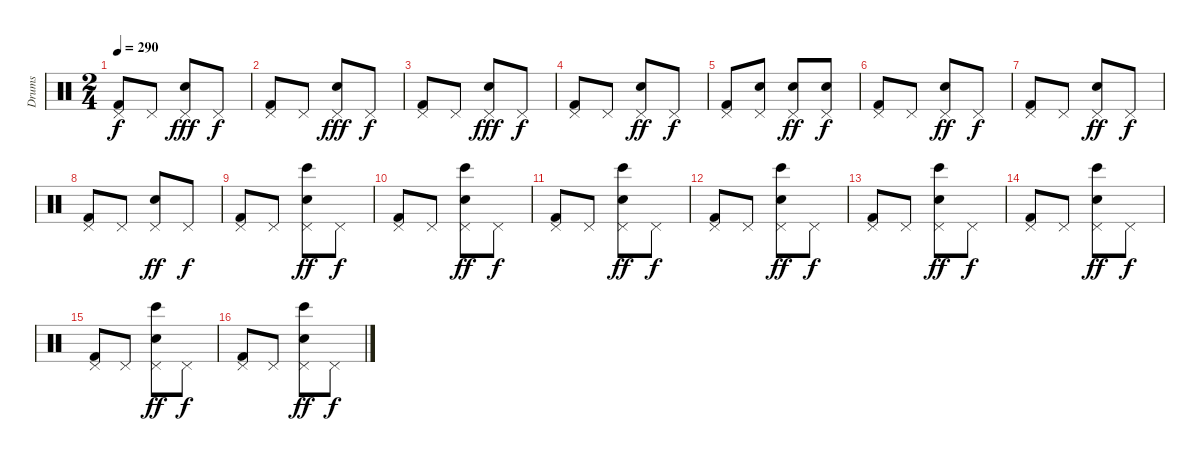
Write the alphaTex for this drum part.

\track ("Drums" "Drums") {instrument percussion}
\staff {score}
\articulation defaults
\ts (2 4)
\tempo 290
\clef neutral
\ks c
("Pedal Hi-Hat (hit)" "Kick (hit) 2").8{dy f} "Pedal Hi-Hat (hit)".8 ("Pedal Hi-Hat (hit)" "Electric Snare (hit)").8{dy fff} "Pedal Hi-Hat (hit)".8{dy f} |
("Pedal Hi-Hat (hit)" "Kick (hit) 2").8 "Pedal Hi-Hat (hit)".8 ("Pedal Hi-Hat (hit)" "Electric Snare (hit)").8{dy fff} "Pedal Hi-Hat (hit)".8{dy f} |
("Pedal Hi-Hat (hit)" "Kick (hit) 2").8 "Pedal Hi-Hat (hit)".8 ("Pedal Hi-Hat (hit)" "Electric Snare (hit)").8{dy fff} "Pedal Hi-Hat (hit)".8{dy f} |
("Pedal Hi-Hat (hit)" "Kick (hit) 2").8 "Pedal Hi-Hat (hit)".8 ("Pedal Hi-Hat (hit)" "Electric Snare (hit)").8{dy ff} "Pedal Hi-Hat (hit)".8{dy f} |
("Pedal Hi-Hat (hit)" "Kick (hit) 2").8 ("Pedal Hi-Hat (hit)" "Electric Snare (hit)").8 ("Pedal Hi-Hat (hit)" "Electric Snare (hit)").8{dy ff} ("Pedal Hi-Hat (hit)" "Electric Snare (hit)").8{dy f} |
("Pedal Hi-Hat (hit)" "Kick (hit) 2").8 "Pedal Hi-Hat (hit)".8 ("Pedal Hi-Hat (hit)" "Electric Snare (hit)").8{dy ff} "Pedal Hi-Hat (hit)".8{dy f} |
("Pedal Hi-Hat (hit)" "Kick (hit) 2").8 "Pedal Hi-Hat (hit)".8 ("Pedal Hi-Hat (hit)" "Electric Snare (hit)").8{dy ff} "Pedal Hi-Hat (hit)".8{dy f} |
("Pedal Hi-Hat (hit)" "Kick (hit) 2").8 "Pedal Hi-Hat (hit)".8 ("Pedal Hi-Hat (hit)" "Electric Snare (hit)").8{dy ff} "Pedal Hi-Hat (hit)".8{dy f} |
("Pedal Hi-Hat (hit)" "Kick (hit) 2").8 "Pedal Hi-Hat (hit)".8 ("Pedal Hi-Hat (hit)" "Bongo High (hit)" "Electric Snare (hit)").8{dy ff} "Pedal Hi-Hat (hit)".8{dy f} |
("Pedal Hi-Hat (hit)" "Kick (hit) 2").8 "Pedal Hi-Hat (hit)".8 ("Pedal Hi-Hat (hit)" "Bongo High (hit)" "Electric Snare (hit)").8{dy ff} "Pedal Hi-Hat (hit)".8{dy f} |
("Pedal Hi-Hat (hit)" "Kick (hit) 2").8 "Pedal Hi-Hat (hit)".8 ("Pedal Hi-Hat (hit)" "Bongo High (hit)" "Electric Snare (hit)").8{dy ff} "Pedal Hi-Hat (hit)".8{dy f} |
("Pedal Hi-Hat (hit)" "Kick (hit) 2").8 "Pedal Hi-Hat (hit)".8 ("Pedal Hi-Hat (hit)" "Bongo High (hit)" "Electric Snare (hit)").8{dy ff} "Pedal Hi-Hat (hit)".8{dy f} |
("Pedal Hi-Hat (hit)" "Kick (hit) 2").8 "Pedal Hi-Hat (hit)".8 ("Pedal Hi-Hat (hit)" "Bongo High (hit)" "Electric Snare (hit)").8{dy ff} "Pedal Hi-Hat (hit)".8{dy f} |
("Pedal Hi-Hat (hit)" "Kick (hit) 2").8 "Pedal Hi-Hat (hit)".8 ("Pedal Hi-Hat (hit)" "Bongo High (hit)" "Electric Snare (hit)").8{dy ff} "Pedal Hi-Hat (hit)".8{dy f} |
("Pedal Hi-Hat (hit)" "Kick (hit) 2").8 "Pedal Hi-Hat (hit)".8 ("Pedal Hi-Hat (hit)" "Bongo High (hit)" "Electric Snare (hit)").8{dy ff} "Pedal Hi-Hat (hit)".8{dy f} |
("Pedal Hi-Hat (hit)" "Kick (hit) 2").8 "Pedal Hi-Hat (hit)".8 ("Pedal Hi-Hat (hit)" "Bongo High (hit)" "Electric Snare (hit)").8{dy ff} "Pedal Hi-Hat (hit)".8{dy f}
